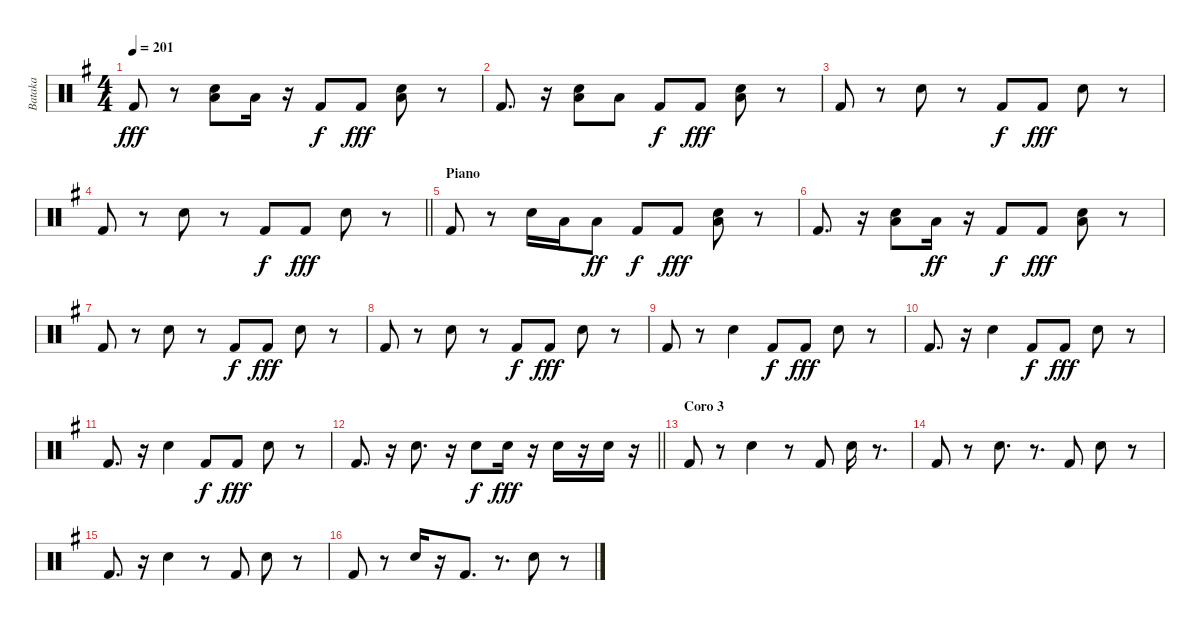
\track ("Bataka" "Bataka") {instrument percussion}
\staff {score}
\articulation defaults
\ts (4 4)
\tempo 201
\clef neutral
\ks g "Kick (hit) 2".8{dy fff}
r.8 ("Electric Snare (hit)" "Low Floor Tom (hit)").8 "Low Floor Tom (hit)".16 r.16 "Kick (hit) 2".8{dy f} "Kick (hit) 2".8{dy fff} ("Electric Snare (hit)" "Low Floor Tom (hit)").8 r.8 |
"Kick (hit) 2".8{d} r.16 ("Electric Snare (hit)" "Low Floor Tom (hit)").8 "Low Floor Tom (hit)".8 "Kick (hit) 2".8{dy f} "Kick (hit) 2".8{dy fff} ("Electric Snare (hit)" "Low Floor Tom (hit)").8 r.8 |
"Kick (hit) 2".8 r.8 "Electric Snare (hit)".8 r.8 "Kick (hit) 2".8{dy f} "Kick (hit) 2".8{dy fff} "Electric Snare (hit)".8 r.8 |
\barLineRight lightlight "Kick (hit) 2".8
r.8 "Electric Snare (hit)".8 r.8 "Kick (hit) 2".8{dy f} "Kick (hit) 2".8{dy fff} "Electric Snare (hit)".8 r.8 |
\section ("" "Piano")
"Kick (hit) 2".8 r.8 "Electric Snare (hit)".16 "Low Floor Tom (hit)".16 "Low Floor Tom (hit)".8{dy ff} "Kick (hit) 2".8{dy f} "Kick (hit) 2".8{dy fff} ("Electric Snare (hit)" "Low Floor Tom (hit)").8 r.8 |
"Kick (hit) 2".8{d} r.16 ("Electric Snare (hit)" "Low Floor Tom (hit)").8 "Low Floor Tom (hit)".16{dy ff} r.16 "Kick (hit) 2".8{dy f} "Kick (hit) 2".8{dy fff} ("Low Floor Tom (hit)" "Electric Snare (hit)").8 r.8 |
"Kick (hit) 2".8 r.8 "Electric Snare (hit)".8 r.8 "Kick (hit) 2".8{dy f} "Kick (hit) 2".8{dy fff} "Electric Snare (hit)".8 r.8 |
"Kick (hit) 2".8 r.8 "Electric Snare (hit)".8 r.8 "Kick (hit) 2".8{dy f} "Kick (hit) 2".8{dy fff} "Electric Snare (hit)".8 r.8 |
"Kick (hit) 2".8 r.8 "Electric Snare (hit)".4 "Kick (hit) 2".8{dy f} "Kick (hit) 2".8{dy fff} "Electric Snare (hit)".8 r.8 |
"Kick (hit) 2".8{d} r.16 "Electric Snare (hit)".4 "Kick (hit) 2".8{dy f} "Kick (hit) 2".8{dy fff} "Electric Snare (hit)".8 r.8 |
"Kick (hit) 2".8{d} r.16 "Electric Snare (hit)".4 "Kick (hit) 2".8{dy f} "Kick (hit) 2".8{dy fff} "Electric Snare (hit)".8 r.8 |
\barLineRight lightlight "Kick (hit) 2".8{d}
r.16 "Electric Snare (hit)".8{d} r.16 "Electric Snare (hit)".8{dy f} "Electric Snare (hit)".16{dy fff} r.16 "Electric Snare (hit)".16 r.16 "Electric Snare (hit)".16 r.16 |
\section ("" "Coro 3")
"Kick (hit) 2".8 r.8 "Electric Snare (hit)".4 r.8 "Kick (hit) 2".8 "Electric Snare (hit)".16 r.8{d} |
"Kick (hit) 2".8 r.8 "Electric Snare (hit)".8{d} r.8{d} "Kick (hit) 2".8 "Electric Snare (hit)".8 r.8 |
"Kick (hit) 2".8{d} r.16 "Electric Snare (hit)".4 r.8 "Kick (hit) 2".8 "Electric Snare (hit)".8 r.8 |
"Kick (hit) 2".8 r.8 "Electric Snare (hit)".16 r.16 "Kick (hit) 2".8{d} r.8{d} "Electric Snare (hit)".8 r.8
